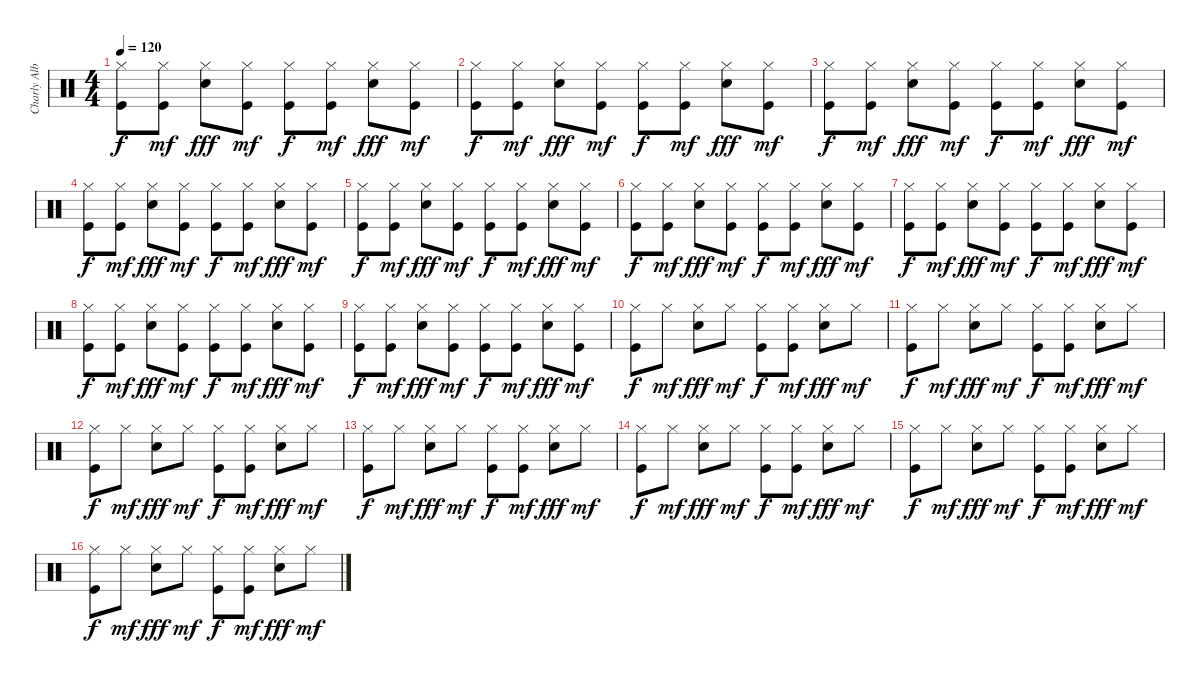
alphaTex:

\track ("Charly Alberti" "Charly Alb") {instrument percussion}
\staff {score}
\articulation defaults
\ts (4 4)
\tempo 120
\clef neutral
\ks c
("Kick (hit)" "Hi-Hat (closed)").8{dy f} ("Kick (hit)" "Hi-Hat (closed)").8{dy mf} ("Snare (hit) 2" "Hi-Hat (closed)").8{dy fff} ("Kick (hit)" "Hi-Hat (closed)").8{dy mf} ("Kick (hit)" "Hi-Hat (closed)").8{dy f} ("Kick (hit)" "Hi-Hat (closed)").8{dy mf} ("Snare (hit) 2" "Hi-Hat (closed)").8{dy fff} ("Kick (hit)" "Hi-Hat (closed)").8{dy mf} |
("Kick (hit)" "Hi-Hat (closed)").8{dy f} ("Kick (hit)" "Hi-Hat (closed)").8{dy mf} ("Snare (hit) 2" "Hi-Hat (closed)").8{dy fff} ("Kick (hit)" "Hi-Hat (closed)").8{dy mf} ("Kick (hit)" "Hi-Hat (closed)").8{dy f} ("Kick (hit)" "Hi-Hat (closed)").8{dy mf} ("Snare (hit) 2" "Hi-Hat (closed)").8{dy fff} ("Kick (hit)" "Hi-Hat (closed)").8{dy mf} |
("Kick (hit)" "Hi-Hat (closed)").8{dy f} ("Kick (hit)" "Hi-Hat (closed)").8{dy mf} ("Snare (hit) 2" "Hi-Hat (closed)").8{dy fff} ("Kick (hit)" "Hi-Hat (closed)").8{dy mf} ("Kick (hit)" "Hi-Hat (closed)").8{dy f} ("Kick (hit)" "Hi-Hat (closed)").8{dy mf} ("Snare (hit) 2" "Hi-Hat (closed)").8{dy fff} ("Kick (hit)" "Hi-Hat (closed)").8{dy mf} |
("Kick (hit)" "Hi-Hat (closed)").8{dy f} ("Kick (hit)" "Hi-Hat (closed)").8{dy mf} ("Snare (hit) 2" "Hi-Hat (closed)").8{dy fff} ("Kick (hit)" "Hi-Hat (closed)").8{dy mf} ("Kick (hit)" "Hi-Hat (closed)").8{dy f} ("Kick (hit)" "Hi-Hat (closed)").8{dy mf} ("Snare (hit) 2" "Hi-Hat (closed)").8{dy fff} ("Kick (hit)" "Hi-Hat (closed)").8{dy mf} |
("Kick (hit)" "Hi-Hat (closed)").8{dy f} ("Kick (hit)" "Hi-Hat (closed)").8{dy mf} ("Snare (hit) 2" "Hi-Hat (closed)").8{dy fff} ("Kick (hit)" "Hi-Hat (closed)").8{dy mf} ("Kick (hit)" "Hi-Hat (closed)").8{dy f} ("Kick (hit)" "Hi-Hat (closed)").8{dy mf} ("Snare (hit) 2" "Hi-Hat (closed)").8{dy fff} ("Kick (hit)" "Hi-Hat (closed)").8{dy mf} |
("Kick (hit)" "Hi-Hat (closed)").8{dy f} ("Kick (hit)" "Hi-Hat (closed)").8{dy mf} ("Snare (hit) 2" "Hi-Hat (closed)").8{dy fff} ("Kick (hit)" "Hi-Hat (closed)").8{dy mf} ("Kick (hit)" "Hi-Hat (closed)").8{dy f} ("Kick (hit)" "Hi-Hat (closed)").8{dy mf} ("Snare (hit) 2" "Hi-Hat (closed)").8{dy fff} ("Kick (hit)" "Hi-Hat (closed)").8{dy mf} |
("Kick (hit)" "Hi-Hat (closed)").8{dy f} ("Kick (hit)" "Hi-Hat (closed)").8{dy mf} ("Snare (hit) 2" "Hi-Hat (closed)").8{dy fff} ("Kick (hit)" "Hi-Hat (closed)").8{dy mf} ("Kick (hit)" "Hi-Hat (closed)").8{dy f} ("Kick (hit)" "Hi-Hat (closed)").8{dy mf} ("Snare (hit) 2" "Hi-Hat (closed)").8{dy fff} ("Kick (hit)" "Hi-Hat (closed)").8{dy mf} |
("Kick (hit)" "Hi-Hat (closed)").8{dy f} ("Kick (hit)" "Hi-Hat (closed)").8{dy mf} ("Snare (hit) 2" "Hi-Hat (closed)").8{dy fff} ("Kick (hit)" "Hi-Hat (closed)").8{dy mf} ("Kick (hit)" "Hi-Hat (closed)").8{dy f} ("Kick (hit)" "Hi-Hat (closed)").8{dy mf} ("Snare (hit) 2" "Hi-Hat (closed)").8{dy fff} ("Kick (hit)" "Hi-Hat (closed)").8{dy mf} |
("Kick (hit)" "Hi-Hat (closed)").8{dy f} ("Kick (hit)" "Hi-Hat (closed)").8{dy mf} ("Snare (hit) 2" "Hi-Hat (closed)").8{dy fff} ("Kick (hit)" "Hi-Hat (closed)").8{dy mf} ("Kick (hit)" "Hi-Hat (closed)").8{dy f} ("Kick (hit)" "Hi-Hat (closed)").8{dy mf} ("Snare (hit) 2" "Hi-Hat (closed)").8{dy fff} ("Kick (hit)" "Hi-Hat (closed)").8{dy mf} |
("Kick (hit)" "Hi-Hat (closed)").8{dy f} "Hi-Hat (closed)".8{dy mf} ("Snare (hit) 2" "Hi-Hat (closed)").8{dy fff} "Hi-Hat (closed)".8{dy mf} ("Kick (hit)" "Hi-Hat (closed)").8{dy f} ("Kick (hit)" "Hi-Hat (closed)").8{dy mf} ("Snare (hit) 2" "Hi-Hat (closed)").8{dy fff} "Hi-Hat (closed)".8{dy mf} |
("Kick (hit)" "Hi-Hat (closed)").8{dy f} "Hi-Hat (closed)".8{dy mf} ("Snare (hit) 2" "Hi-Hat (closed)").8{dy fff} "Hi-Hat (closed)".8{dy mf} ("Kick (hit)" "Hi-Hat (closed)").8{dy f} ("Kick (hit)" "Hi-Hat (closed)").8{dy mf} ("Snare (hit) 2" "Hi-Hat (closed)").8{dy fff} "Hi-Hat (closed)".8{dy mf} |
("Kick (hit)" "Hi-Hat (closed)").8{dy f} "Hi-Hat (closed)".8{dy mf} ("Snare (hit) 2" "Hi-Hat (closed)").8{dy fff} "Hi-Hat (closed)".8{dy mf} ("Kick (hit)" "Hi-Hat (closed)").8{dy f} ("Kick (hit)" "Hi-Hat (closed)").8{dy mf} ("Snare (hit) 2" "Hi-Hat (closed)").8{dy fff} "Hi-Hat (closed)".8{dy mf} |
("Kick (hit)" "Hi-Hat (closed)").8{dy f} "Hi-Hat (closed)".8{dy mf} ("Snare (hit) 2" "Hi-Hat (closed)").8{dy fff} "Hi-Hat (closed)".8{dy mf} ("Kick (hit)" "Hi-Hat (closed)").8{dy f} ("Kick (hit)" "Hi-Hat (closed)").8{dy mf} ("Snare (hit) 2" "Hi-Hat (closed)").8{dy fff} "Hi-Hat (closed)".8{dy mf} |
("Kick (hit)" "Hi-Hat (closed)").8{dy f} "Hi-Hat (closed)".8{dy mf} ("Snare (hit) 2" "Hi-Hat (closed)").8{dy fff} "Hi-Hat (closed)".8{dy mf} ("Kick (hit)" "Hi-Hat (closed)").8{dy f} ("Kick (hit)" "Hi-Hat (closed)").8{dy mf} ("Snare (hit) 2" "Hi-Hat (closed)").8{dy fff} "Hi-Hat (closed)".8{dy mf} |
("Kick (hit)" "Hi-Hat (closed)").8{dy f} "Hi-Hat (closed)".8{dy mf} ("Snare (hit) 2" "Hi-Hat (closed)").8{dy fff} "Hi-Hat (closed)".8{dy mf} ("Kick (hit)" "Hi-Hat (closed)").8{dy f} ("Kick (hit)" "Hi-Hat (closed)").8{dy mf} ("Snare (hit) 2" "Hi-Hat (closed)").8{dy fff} "Hi-Hat (closed)".8{dy mf} |
("Kick (hit)" "Hi-Hat (closed)").8{dy f} "Hi-Hat (closed)".8{dy mf} ("Snare (hit) 2" "Hi-Hat (closed)").8{dy fff} "Hi-Hat (closed)".8{dy mf} ("Kick (hit)" "Hi-Hat (closed)").8{dy f} ("Kick (hit)" "Hi-Hat (closed)").8{dy mf} ("Snare (hit) 2" "Hi-Hat (closed)").8{dy fff} "Hi-Hat (closed)".8{dy mf}
